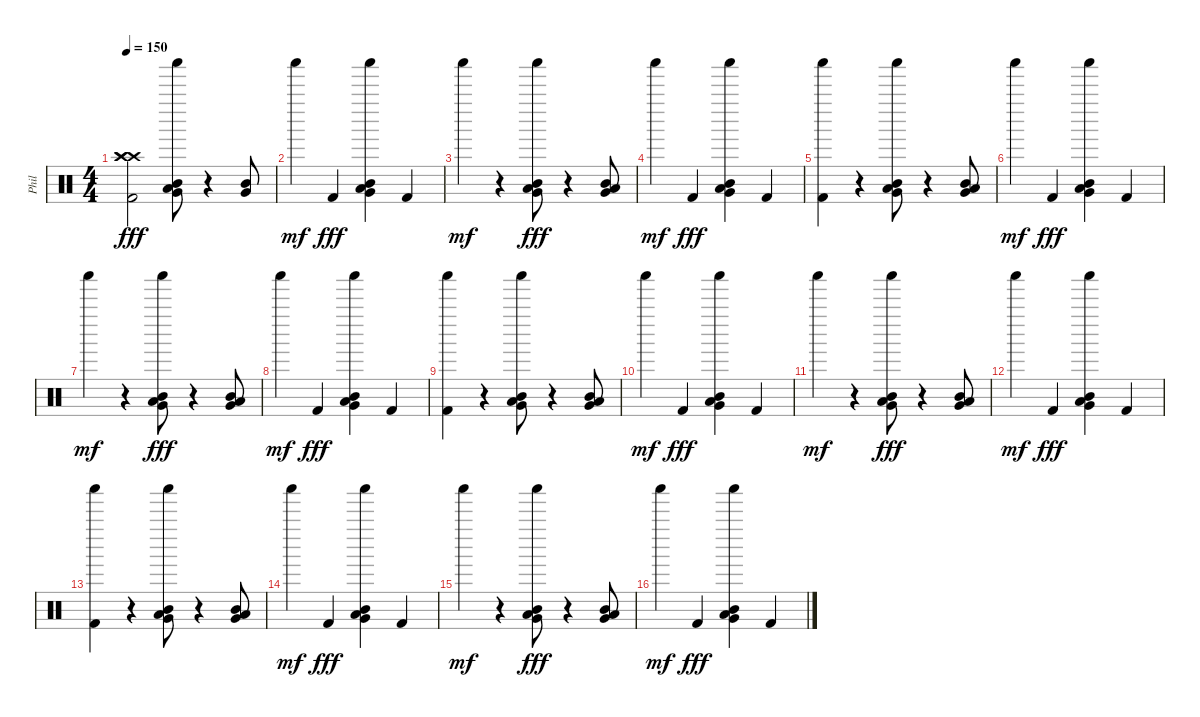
\track ("Phil" "Phil") {instrument percussion}
\staff {score}
\articulation defaults
\ts (4 4)
\tempo 150
\clef neutral
\ks c
("Crash high (hit)" "Crash high (hit)" "Crash high (hit)" "Kick (hit) 2").2{dy fff} ("Shaker (hit)" "Mid Tom (hit)" "Very Low Tom (hit)" "Low Floor Tom (hit)").8 r.4 ("Very Low Tom (hit)" "Mid Tom (hit)").8 |
"Shaker (hit)".4{dy mf} "Kick (hit) 2".4{dy fff} ("Shaker (hit)" "Mid Tom (hit)" "Very Low Tom (hit)" "Low Floor Tom (hit)").4 "Kick (hit) 2".4 |
"Shaker (hit)".4{dy mf} r.4 ("Shaker (hit)" "Mid Tom (hit)" "Very Low Tom (hit)" "Low Floor Tom (hit)").8{dy fff} r.4 ("Very Low Tom (hit)" "Mid Tom (hit)" "Low Floor Tom (hit)").8 |
"Shaker (hit)".4{dy mf} "Kick (hit) 2".4{dy fff} ("Shaker (hit)" "Mid Tom (hit)" "Very Low Tom (hit)" "Low Floor Tom (hit)").4 "Kick (hit) 2".4 |
("Shaker (hit)" "Kick (hit) 2").4 r.4 ("Shaker (hit)" "Mid Tom (hit)" "Very Low Tom (hit)" "Low Floor Tom (hit)").8 r.4 ("Very Low Tom (hit)" "Mid Tom (hit)" "Low Floor Tom (hit)").8 |
"Shaker (hit)".4{dy mf} "Kick (hit) 2".4{dy fff} ("Shaker (hit)" "Mid Tom (hit)" "Very Low Tom (hit)" "Low Floor Tom (hit)").4 "Kick (hit) 2".4 |
"Shaker (hit)".4{dy mf} r.4 ("Shaker (hit)" "Mid Tom (hit)" "Very Low Tom (hit)" "Low Floor Tom (hit)").8{dy fff} r.4 ("Mid Tom (hit)" "Very Low Tom (hit)" "Low Floor Tom (hit)").8 |
"Shaker (hit)".4{dy mf} "Kick (hit) 2".4{dy fff} ("Shaker (hit)" "Mid Tom (hit)" "Very Low Tom (hit)" "Low Floor Tom (hit)").4 "Kick (hit) 2".4 |
("Shaker (hit)" "Kick (hit) 2").4 r.4 ("Shaker (hit)" "Mid Tom (hit)" "Very Low Tom (hit)" "Low Floor Tom (hit)").8 r.4 ("Very Low Tom (hit)" "Mid Tom (hit)" "Low Floor Tom (hit)").8 |
"Shaker (hit)".4{dy mf} "Kick (hit) 2".4{dy fff} ("Shaker (hit)" "Mid Tom (hit)" "Very Low Tom (hit)" "Low Floor Tom (hit)").4 "Kick (hit) 2".4 |
"Shaker (hit)".4{dy mf} r.4 ("Shaker (hit)" "Mid Tom (hit)" "Very Low Tom (hit)" "Low Floor Tom (hit)").8{dy fff} r.4 ("Mid Tom (hit)" "Very Low Tom (hit)" "Low Floor Tom (hit)").8 |
"Shaker (hit)".4{dy mf} "Kick (hit) 2".4{dy fff} ("Shaker (hit)" "Very Low Tom (hit)" "Low Floor Tom (hit)" "Mid Tom (hit)").4 "Kick (hit) 2".4 |
("Shaker (hit)" "Kick (hit) 2").4 r.4 ("Shaker (hit)" "Mid Tom (hit)" "Very Low Tom (hit)" "Low Floor Tom (hit)").8 r.4 ("Very Low Tom (hit)" "Mid Tom (hit)" "Low Floor Tom (hit)").8 |
"Shaker (hit)".4{dy mf} "Kick (hit) 2".4{dy fff} ("Shaker (hit)" "Mid Tom (hit)" "Very Low Tom (hit)" "Low Floor Tom (hit)").4 "Kick (hit) 2".4 |
"Shaker (hit)".4{dy mf} r.4 ("Shaker (hit)" "Mid Tom (hit)" "Very Low Tom (hit)" "Low Floor Tom (hit)").8{dy fff} r.4 ("Mid Tom (hit)" "Very Low Tom (hit)" "Low Floor Tom (hit)").8 |
"Shaker (hit)".4{dy mf} "Kick (hit) 2".4{dy fff} ("Shaker (hit)" "Very Low Tom (hit)" "Low Floor Tom (hit)" "Mid Tom (hit)").4 "Kick (hit) 2".4
